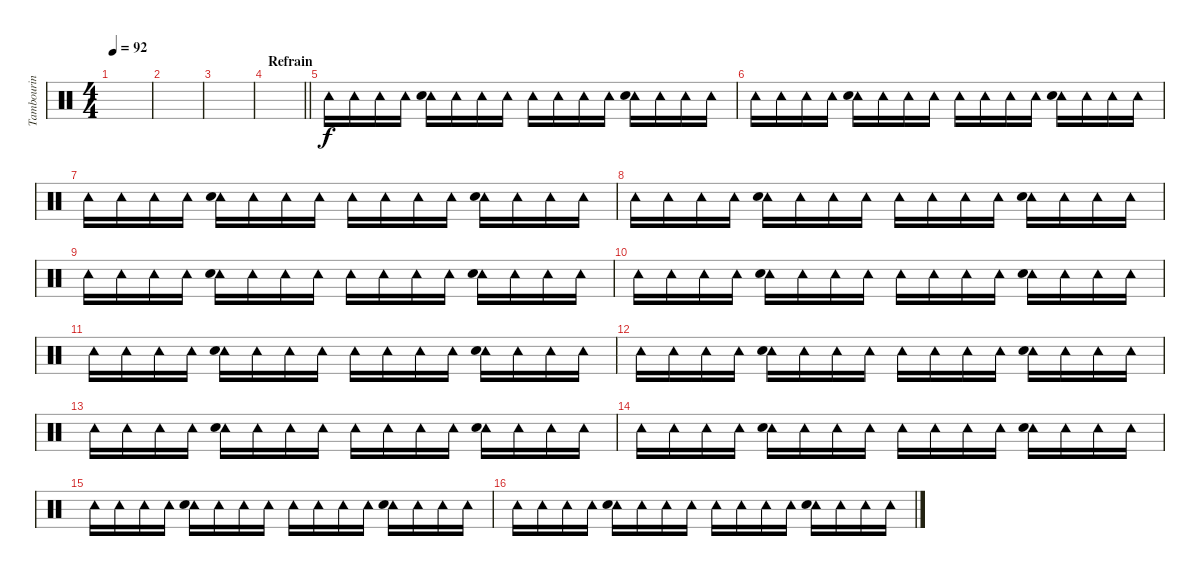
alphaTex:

\track ("Tambourin" "Tambourin") {instrument percussion}
\staff {score}
\articulation defaults
\ts (4 4)
\tempo 92
\clef neutral
\ks c
|
|
|
\section ("" "Refrain")
\barLineRight lightlight
|
"Tambourine (hit)".16 "Tambourine (hit)".16 "Tambourine (hit)".16 "Tambourine (hit)".16 ("Tambourine (hit)" "Hand Clap (hit)").16 "Tambourine (hit)".16 "Tambourine (hit)".16 "Tambourine (hit)".16 "Tambourine (hit)".16 "Tambourine (hit)".16 "Tambourine (hit)".16 "Tambourine (hit)".16 ("Tambourine (hit)" "Hand Clap (hit)").16 "Tambourine (hit)".16 "Tambourine (hit)".16 "Tambourine (hit)".16 |
"Tambourine (hit)".16 "Tambourine (hit)".16 "Tambourine (hit)".16 "Tambourine (hit)".16 ("Tambourine (hit)" "Hand Clap (hit)").16 "Tambourine (hit)".16 "Tambourine (hit)".16 "Tambourine (hit)".16 "Tambourine (hit)".16 "Tambourine (hit)".16 "Tambourine (hit)".16 "Tambourine (hit)".16 ("Tambourine (hit)" "Hand Clap (hit)").16 "Tambourine (hit)".16 "Tambourine (hit)".16 "Tambourine (hit)".16 |
"Tambourine (hit)".16 "Tambourine (hit)".16 "Tambourine (hit)".16 "Tambourine (hit)".16 ("Tambourine (hit)" "Hand Clap (hit)").16 "Tambourine (hit)".16 "Tambourine (hit)".16 "Tambourine (hit)".16 "Tambourine (hit)".16 "Tambourine (hit)".16 "Tambourine (hit)".16 "Tambourine (hit)".16 ("Tambourine (hit)" "Hand Clap (hit)").16 "Tambourine (hit)".16 "Tambourine (hit)".16 "Tambourine (hit)".16 |
"Tambourine (hit)".16 "Tambourine (hit)".16 "Tambourine (hit)".16 "Tambourine (hit)".16 ("Tambourine (hit)" "Hand Clap (hit)").16 "Tambourine (hit)".16 "Tambourine (hit)".16 "Tambourine (hit)".16 "Tambourine (hit)".16 "Tambourine (hit)".16 "Tambourine (hit)".16 "Tambourine (hit)".16 ("Tambourine (hit)" "Hand Clap (hit)").16 "Tambourine (hit)".16 "Tambourine (hit)".16 "Tambourine (hit)".16 |
"Tambourine (hit)".16 "Tambourine (hit)".16 "Tambourine (hit)".16 "Tambourine (hit)".16 ("Tambourine (hit)" "Hand Clap (hit)").16 "Tambourine (hit)".16 "Tambourine (hit)".16 "Tambourine (hit)".16 "Tambourine (hit)".16 "Tambourine (hit)".16 "Tambourine (hit)".16 "Tambourine (hit)".16 ("Tambourine (hit)" "Hand Clap (hit)").16 "Tambourine (hit)".16 "Tambourine (hit)".16 "Tambourine (hit)".16 |
"Tambourine (hit)".16 "Tambourine (hit)".16 "Tambourine (hit)".16 "Tambourine (hit)".16 ("Tambourine (hit)" "Hand Clap (hit)").16 "Tambourine (hit)".16 "Tambourine (hit)".16 "Tambourine (hit)".16 "Tambourine (hit)".16 "Tambourine (hit)".16 "Tambourine (hit)".16 "Tambourine (hit)".16 ("Tambourine (hit)" "Hand Clap (hit)").16 "Tambourine (hit)".16 "Tambourine (hit)".16 "Tambourine (hit)".16 |
"Tambourine (hit)".16 "Tambourine (hit)".16 "Tambourine (hit)".16 "Tambourine (hit)".16 ("Tambourine (hit)" "Hand Clap (hit)").16 "Tambourine (hit)".16 "Tambourine (hit)".16 "Tambourine (hit)".16 "Tambourine (hit)".16 "Tambourine (hit)".16 "Tambourine (hit)".16 "Tambourine (hit)".16 ("Tambourine (hit)" "Hand Clap (hit)").16 "Tambourine (hit)".16 "Tambourine (hit)".16 "Tambourine (hit)".16 |
"Tambourine (hit)".16 "Tambourine (hit)".16 "Tambourine (hit)".16 "Tambourine (hit)".16 ("Tambourine (hit)" "Hand Clap (hit)").16 "Tambourine (hit)".16 "Tambourine (hit)".16 "Tambourine (hit)".16 "Tambourine (hit)".16 "Tambourine (hit)".16 "Tambourine (hit)".16 "Tambourine (hit)".16 ("Tambourine (hit)" "Hand Clap (hit)").16 "Tambourine (hit)".16 "Tambourine (hit)".16 "Tambourine (hit)".16 |
"Tambourine (hit)".16 "Tambourine (hit)".16 "Tambourine (hit)".16 "Tambourine (hit)".16 ("Tambourine (hit)" "Hand Clap (hit)").16 "Tambourine (hit)".16 "Tambourine (hit)".16 "Tambourine (hit)".16 "Tambourine (hit)".16 "Tambourine (hit)".16 "Tambourine (hit)".16 "Tambourine (hit)".16 ("Tambourine (hit)" "Hand Clap (hit)").16 "Tambourine (hit)".16 "Tambourine (hit)".16 "Tambourine (hit)".16 |
"Tambourine (hit)".16 "Tambourine (hit)".16 "Tambourine (hit)".16 "Tambourine (hit)".16 ("Tambourine (hit)" "Hand Clap (hit)").16 "Tambourine (hit)".16 "Tambourine (hit)".16 "Tambourine (hit)".16 "Tambourine (hit)".16 "Tambourine (hit)".16 "Tambourine (hit)".16 "Tambourine (hit)".16 ("Tambourine (hit)" "Hand Clap (hit)").16 "Tambourine (hit)".16 "Tambourine (hit)".16 "Tambourine (hit)".16 |
"Tambourine (hit)".16 "Tambourine (hit)".16 "Tambourine (hit)".16 "Tambourine (hit)".16 ("Tambourine (hit)" "Hand Clap (hit)").16 "Tambourine (hit)".16 "Tambourine (hit)".16 "Tambourine (hit)".16 "Tambourine (hit)".16 "Tambourine (hit)".16 "Tambourine (hit)".16 "Tambourine (hit)".16 ("Tambourine (hit)" "Hand Clap (hit)").16 "Tambourine (hit)".16 "Tambourine (hit)".16 "Tambourine (hit)".16 |
"Tambourine (hit)".16 "Tambourine (hit)".16 "Tambourine (hit)".16 "Tambourine (hit)".16 ("Tambourine (hit)" "Hand Clap (hit)").16 "Tambourine (hit)".16 "Tambourine (hit)".16 "Tambourine (hit)".16 "Tambourine (hit)".16 "Tambourine (hit)".16 "Tambourine (hit)".16 "Tambourine (hit)".16 ("Tambourine (hit)" "Hand Clap (hit)").16 "Tambourine (hit)".16 "Tambourine (hit)".16 "Tambourine (hit)".16
